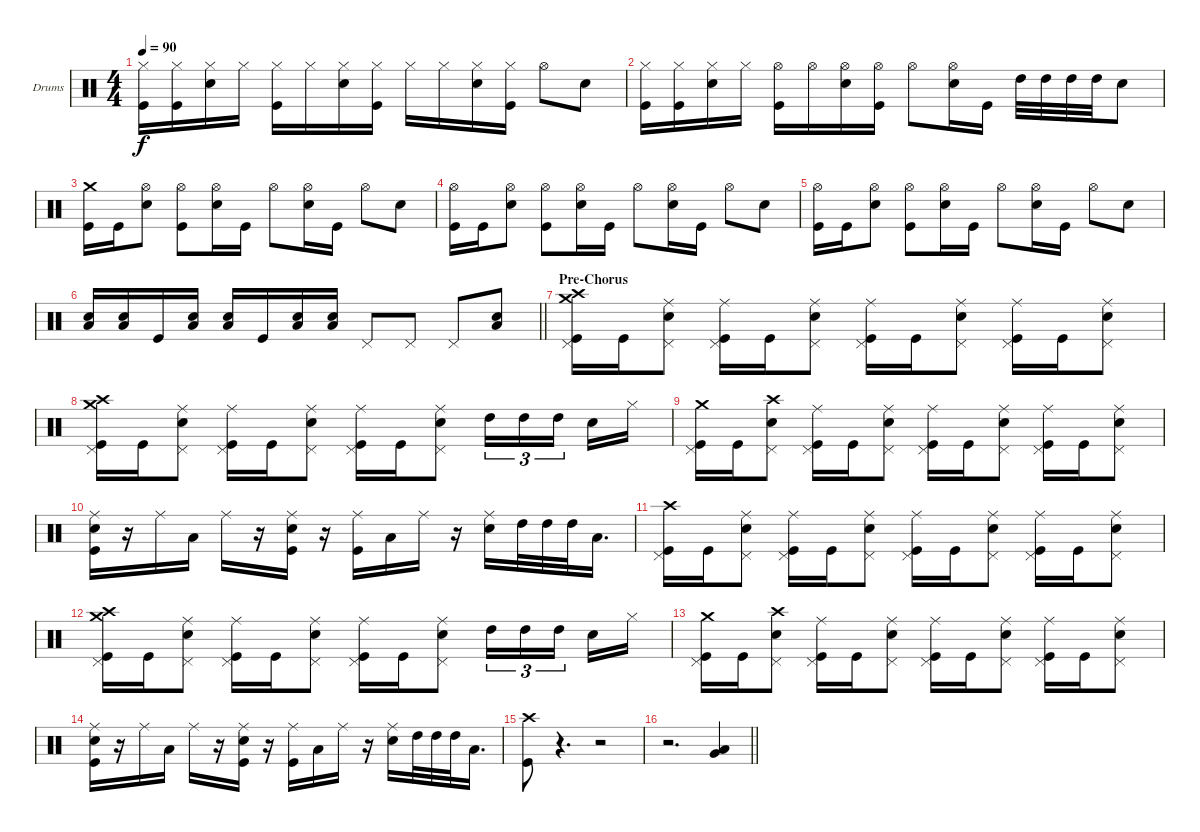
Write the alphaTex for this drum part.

\bracketExtendMode groupsimilarinstruments
\firstSystemTrackNameOrientation horizontal
\otherSystemsTrackNameOrientation horizontal
\track ("Rian Dawson" "Drums") {instrument percussion}
\staff {score}
\articulation defaults
\ts (4 4)
\tempo 90
\clef neutral
\scale
0.333333
\ks c
("Hi-Hat (closed)" "Kick (hit)").16{dy f} ("Hi-Hat (closed)" "Kick (hit)").16 ("Hi-Hat (closed)" "Snare (hit) 2").16 "Hi-Hat (closed)".16 ("Hi-Hat (closed)" "Kick (hit)").16 "Hi-Hat (closed)".16 ("Hi-Hat (closed)" "Snare (hit) 2").16 ("Hi-Hat (closed)" "Kick (hit)").16 "Hi-Hat (closed)".16 "Hi-Hat (closed)".16 ("Hi-Hat (closed)" "Snare (hit) 2").16 ("Hi-Hat (closed)" "Kick (hit)").16 "Hi-Hat (open)".8 "Snare (hit) 2".8 |
\scale
0.333333 ("Hi-Hat (closed)" "Kick (hit)").16 ("Hi-Hat (closed)" "Kick (hit)").16 ("Hi-Hat (closed)" "Snare (hit) 2").16 "Hi-Hat (closed)".16 ("Hi-Hat (open)" "Kick (hit)").16 "Hi-Hat (open)".16 ("Hi-Hat (open)" "Snare (hit) 2").16 ("Hi-Hat (open)" "Kick (hit)").16 "Hi-Hat (open)".8 ("Hi-Hat (open)" "Snare (hit) 2").16 "Kick (hit)".16 "High Tom (hit)".32 "High Tom (hit)".32 "High Tom (hit)".32 "High Tom (hit)".32 "Snare (hit) 2".8 |
\scale
0.333333 ("Crash medium (hit)" "Kick (hit)").16 "Kick (hit)".16 ("Hi-Hat (open)" "Snare (hit) 2").8 ("Hi-Hat (open)" "Kick (hit)").8 ("Hi-Hat (open)" "Snare (hit) 2").16 "Kick (hit)".16 "Hi-Hat (open)".8 ("Hi-Hat (open)" "Snare (hit) 2").16 "Kick (hit)".16 "Hi-Hat (open)".8 "Snare (hit) 2".8 |
\scale
0.333333 ("Hi-Hat (open)" "Kick (hit)").16 "Kick (hit)".16 ("Hi-Hat (open)" "Snare (hit) 2").8 ("Hi-Hat (open)" "Kick (hit)").8 ("Hi-Hat (open)" "Snare (hit) 2").16 "Kick (hit)".16 "Hi-Hat (open)".8 ("Hi-Hat (open)" "Snare (hit) 2").16 "Kick (hit)".16 "Hi-Hat (open)".8 "Snare (hit) 2".8 |
\scale
0.333333 ("Hi-Hat (open)" "Kick (hit)").16 "Kick (hit)".16 ("Hi-Hat (open)" "Snare (hit) 2").8 ("Hi-Hat (open)" "Kick (hit)").8 ("Hi-Hat (open)" "Snare (hit) 2").16 "Kick (hit)".16 "Hi-Hat (open)".8 ("Hi-Hat (open)" "Snare (hit) 2").16 "Kick (hit)".16 "Hi-Hat (open)".8 "Snare (hit) 2".8 |
\scale
0.333333
\barLineRight lightlight
("Low Tom (hit)" "Snare (hit) 2").16 ("Low Tom (hit)" "Snare (hit) 2").16 "Kick (hit)".16 ("Low Tom (hit)" "Snare (hit) 2").16 ("Low Tom (hit)" "Snare (hit) 2").16 "Kick (hit)".16 ("Low Tom (hit)" "Snare (hit) 2").16 ("Low Tom (hit)" "Snare (hit) 2").16 "Pedal Hi-Hat (hit)".8 "Pedal Hi-Hat (hit)".8 "Pedal Hi-Hat (hit)".8 ("Low Tom (hit)" "Snare (hit) 2").8 |
\section ("" "Pre-Chorus")
\scale
0.333333 ("Crash high (hit)" "Crash medium (hit)" "Pedal Hi-Hat (hit)" "Kick (hit)").16 "Kick (hit)".16 ("Ride (middle)" "Pedal Hi-Hat (hit)" "Snare (hit) 2").8 ("Ride (middle)" "Pedal Hi-Hat (hit)" "Kick (hit)").16 "Kick (hit)".16 ("Ride (middle)" "Pedal Hi-Hat (hit)" "Snare (hit) 2").8 ("Ride (middle)" "Pedal Hi-Hat (hit)" "Kick (hit)").16 "Kick (hit)".16 ("Ride (middle)" "Pedal Hi-Hat (hit)" "Snare (hit) 2").8 ("Ride (middle)" "Pedal Hi-Hat (hit)" "Kick (hit)").16 "Kick (hit)".16 ("Ride (middle)" "Pedal Hi-Hat (hit)" "Snare (hit) 2").8 |
\scale
0.333333 ("Crash high (hit)" "Crash medium (hit)" "Pedal Hi-Hat (hit)" "Kick (hit)").16 "Kick (hit)".16 ("Ride (middle)" "Pedal Hi-Hat (hit)" "Snare (hit) 2").8 ("Ride (middle)" "Pedal Hi-Hat (hit)" "Kick (hit)").16 "Kick (hit)".16 ("Ride (middle)" "Pedal Hi-Hat (hit)" "Snare (hit) 2").8 ("Ride (middle)" "Pedal Hi-Hat (hit)" "Kick (hit)").16 "Kick (hit)".16 ("Ride (middle)" "Pedal Hi-Hat (hit)" "Snare (hit) 2").8 "High Tom (hit)".16{tu (3 2)} "High Tom (hit)".16{tu (3 2)} "High Tom (hit)".16{tu (3 2)} "Snare (hit) 2".16 "Hi-Hat (closed)".16 |
\scale
0.333333 ("Crash medium (hit)" "Pedal Hi-Hat (hit)" "Kick (hit)").16 "Kick (hit)".16 ("Crash high (hit)" "Pedal Hi-Hat (hit)" "Snare (hit) 2").8 ("Ride (middle)" "Pedal Hi-Hat (hit)" "Kick (hit)").16 "Kick (hit)".16 ("Ride (middle)" "Pedal Hi-Hat (hit)" "Snare (hit) 2").8 ("Ride (middle)" "Pedal Hi-Hat (hit)" "Kick (hit)").16 "Kick (hit)".16 ("Ride (middle)" "Pedal Hi-Hat (hit)" "Snare (hit) 2").8 ("Ride (middle)" "Pedal Hi-Hat (hit)" "Kick (hit)").16 "Kick (hit)".16 ("Ride (middle)" "Pedal Hi-Hat (hit)" "Snare (hit) 2").8 |
\scale
0.333333 ("Ride (middle)" "Snare (hit) 2" "Kick (hit)").16 r.16 "Ride (middle)".16 "Low Tom (hit)".16 "Ride (middle)".16 r.16 ("Ride (middle)" "Snare (hit) 2" "Kick (hit)").16 r.16 ("Ride (middle)" "Kick (hit)").16 "Low Tom (hit)".16 "Ride (middle)".16 r.16 ("Ride (middle)" "Snare (hit) 2").16 "High Tom (hit)".32 "High Tom (hit)".32 "High Tom (hit)".32 "Low Tom (hit)".16{d} |
\scale
0.333333 ("Crash high (hit)" "Pedal Hi-Hat (hit)" "Kick (hit)").16 "Kick (hit)".16 ("Ride (middle)" "Pedal Hi-Hat (hit)" "Snare (hit) 2").8 ("Ride (middle)" "Pedal Hi-Hat (hit)" "Kick (hit)").16 "Kick (hit)".16 ("Ride (middle)" "Pedal Hi-Hat (hit)" "Snare (hit) 2").8 ("Ride (middle)" "Pedal Hi-Hat (hit)" "Kick (hit)").16 "Kick (hit)".16 ("Ride (middle)" "Pedal Hi-Hat (hit)" "Snare (hit) 2").8 ("Ride (middle)" "Pedal Hi-Hat (hit)" "Kick (hit)").16 "Kick (hit)".16 ("Ride (middle)" "Pedal Hi-Hat (hit)" "Snare (hit) 2").8 |
\scale
0.333333 ("Crash high (hit)" "Crash medium (hit)" "Pedal Hi-Hat (hit)" "Kick (hit)").16 "Kick (hit)".16 ("Ride (middle)" "Pedal Hi-Hat (hit)" "Snare (hit) 2").8 ("Ride (middle)" "Pedal Hi-Hat (hit)" "Kick (hit)").16 "Kick (hit)".16 ("Ride (middle)" "Pedal Hi-Hat (hit)" "Snare (hit) 2").8 ("Ride (middle)" "Pedal Hi-Hat (hit)" "Kick (hit)").16 "Kick (hit)".16 ("Ride (middle)" "Pedal Hi-Hat (hit)" "Snare (hit) 2").8 "High Tom (hit)".16{tu (3 2)} "High Tom (hit)".16{tu (3 2)} "High Tom (hit)".16{tu (3 2)} "Snare (hit) 2".16 "Hi-Hat (closed)".16 |
\scale
0.333333 ("Crash medium (hit)" "Pedal Hi-Hat (hit)" "Kick (hit)").16 "Kick (hit)".16 ("Crash high (hit)" "Pedal Hi-Hat (hit)" "Snare (hit) 2").8 ("Ride (middle)" "Pedal Hi-Hat (hit)" "Kick (hit)").16 "Kick (hit)".16 ("Ride (middle)" "Pedal Hi-Hat (hit)" "Snare (hit) 2").8 ("Ride (middle)" "Pedal Hi-Hat (hit)" "Kick (hit)").16 "Kick (hit)".16 ("Ride (middle)" "Pedal Hi-Hat (hit)" "Snare (hit) 2").8 ("Ride (middle)" "Pedal Hi-Hat (hit)" "Kick (hit)").16 "Kick (hit)".16 ("Ride (middle)" "Pedal Hi-Hat (hit)" "Snare (hit) 2").8 |
\scale
0.333333 ("Ride (middle)" "Snare (hit) 2" "Kick (hit)").16 r.16 "Ride (middle)".16 "Low Tom (hit)".16 "Ride (middle)".16 r.16 ("Ride (middle)" "Snare (hit) 2" "Kick (hit)").16 r.16 ("Ride (middle)" "Kick (hit)").16 "Low Tom (hit)".16 "Ride (middle)".16 r.16 ("Ride (middle)" "Snare (hit) 2").16 "High Tom (hit)".32 "High Tom (hit)".32 "High Tom (hit)".32 "Low Tom (hit)".16{d} |
\scale
0.333333 ("Crash high (hit)" "Kick (hit)").8 r.4{d} r.2 |
\scale
0.333333
\barLineRight lightlight
r.2{d} ("Low Tom (hit)" "Very Low Tom (hit)").4
